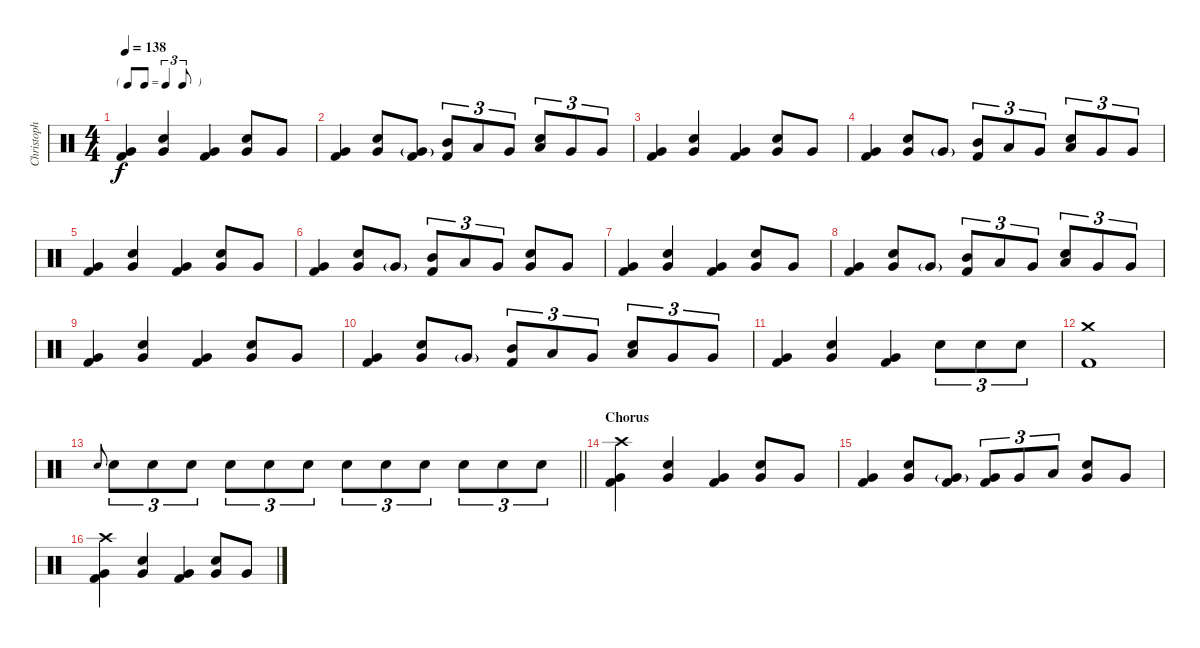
\track ("Christoph Schneider" "Christoph ") {instrument percussion}
\staff {score}
\articulation defaults
\ts (4 4)
\tf triplet8th
\tempo 138
\clef neutral
\ks c
("Very Low Tom (hit)" "Kick (hit) 2").4{dy f} ("Very Low Tom (hit)" "Electric Snare (hit)").4 ("Very Low Tom (hit)" "Kick (hit) 2").4 ("Very Low Tom (hit)" "Electric Snare (hit)").8 "Very Low Tom (hit)".8 |
("Very Low Tom (hit)" "Kick (hit) 2").4 ("Very Low Tom (hit)" "Electric Snare (hit)").8 ("Very Low Tom (hit)"{g} "Kick (hit) 2").8 ("Mid Tom (hit)" "Kick (hit) 2").8{tu (3 2)} "Low Tom (hit)".8{tu (3 2)} "Very Low Tom (hit)".8{tu (3 2)} ("Low Tom (hit)" "Electric Snare (hit)").8{tu (3 2)} "Very Low Tom (hit)".8{tu (3 2)} "Very Low Tom (hit)".8{tu (3 2)} |
("Very Low Tom (hit)" "Kick (hit) 2").4 ("Very Low Tom (hit)" "Electric Snare (hit)").4 ("Very Low Tom (hit)" "Kick (hit) 2").4 ("Very Low Tom (hit)" "Electric Snare (hit)").8 "Very Low Tom (hit)".8 |
("Very Low Tom (hit)" "Kick (hit) 2").4 ("Very Low Tom (hit)" "Electric Snare (hit)").8 "Very Low Tom (hit)"{g}.8 ("Mid Tom (hit)" "Kick (hit) 2").8{tu (3 2)} "Low Tom (hit)".8{tu (3 2)} "Very Low Tom (hit)".8{tu (3 2)} ("Low Tom (hit)" "Electric Snare (hit)").8{tu (3 2)} "Very Low Tom (hit)".8{tu (3 2)} "Very Low Tom (hit)".8{tu (3 2)} |
("Very Low Tom (hit)" "Kick (hit) 2").4 ("Very Low Tom (hit)" "Electric Snare (hit)").4 ("Very Low Tom (hit)" "Kick (hit) 2").4 ("Very Low Tom (hit)" "Electric Snare (hit)").8 "Very Low Tom (hit)".8 |
("Very Low Tom (hit)" "Kick (hit) 2").4 ("Very Low Tom (hit)" "Electric Snare (hit)").8 "Very Low Tom (hit)"{g}.8 ("Mid Tom (hit)" "Kick (hit) 2").8{tu (3 2)} "Low Tom (hit)".8{tu (3 2)} "Very Low Tom (hit)".8{tu (3 2)} ("Very Low Tom (hit)" "Electric Snare (hit)").8 "Very Low Tom (hit)".8 |
("Very Low Tom (hit)" "Kick (hit) 2").4 ("Very Low Tom (hit)" "Electric Snare (hit)").4 ("Very Low Tom (hit)" "Kick (hit) 2").4 ("Very Low Tom (hit)" "Electric Snare (hit)").8 "Very Low Tom (hit)".8 |
("Very Low Tom (hit)" "Kick (hit) 2").4 ("Very Low Tom (hit)" "Electric Snare (hit)").8 "Very Low Tom (hit)"{g}.8 ("Mid Tom (hit)" "Kick (hit) 2").8{tu (3 2)} "Low Tom (hit)".8{tu (3 2)} "Very Low Tom (hit)".8{tu (3 2)} ("Low Tom (hit)" "Electric Snare (hit)").8{tu (3 2)} "Very Low Tom (hit)".8{tu (3 2)} "Very Low Tom (hit)".8{tu (3 2)} |
("Very Low Tom (hit)" "Kick (hit) 2").4 ("Very Low Tom (hit)" "Electric Snare (hit)").4 ("Very Low Tom (hit)" "Kick (hit) 2").4 ("Very Low Tom (hit)" "Electric Snare (hit)").8 "Very Low Tom (hit)".8 |
("Very Low Tom (hit)" "Kick (hit) 2").4 ("Very Low Tom (hit)" "Electric Snare (hit)").8 "Very Low Tom (hit)"{g}.8 ("Mid Tom (hit)" "Kick (hit) 2").8{tu (3 2)} "Low Tom (hit)".8{tu (3 2)} "Very Low Tom (hit)".8{tu (3 2)} ("Low Tom (hit)" "Electric Snare (hit)").8{tu (3 2)} "Very Low Tom (hit)".8{tu (3 2)} "Very Low Tom (hit)".8{tu (3 2)} |
("Very Low Tom (hit)" "Kick (hit) 2").4 ("Very Low Tom (hit)" "Electric Snare (hit)").4 ("Very Low Tom (hit)" "Kick (hit) 2").4 "Electric Snare (hit)".8{tu (3 2)} "Electric Snare (hit)".8{tu (3 2)} "Electric Snare (hit)".8{tu (3 2)} |
("Crash medium (hit)" "Kick (hit) 2").1 |
\barLineRight lightlight "Electric Snare (hit)".8{gr onbeat} "Electric Snare (hit)".8{tu (3 2)} "Electric Snare (hit)".8{tu (3 2)} "Electric Snare (hit)".8{tu (3 2)} "Electric Snare (hit)".8{tu (3 2)} "Electric Snare (hit)".8{tu (3 2)} "Electric Snare (hit)".8{tu (3 2)} "Electric Snare (hit)".8{tu (3 2)} "Electric Snare (hit)".8{tu (3 2)} "Electric Snare (hit)".8{tu (3 2)} "Electric Snare (hit)".8{tu (3 2)} "Electric Snare (hit)".8{tu (3 2)} "Electric Snare (hit)".8{tu (3 2)}
|
\section ("" "Chorus")
("Crash high (hit)" "Very Low Tom (hit)" "Kick (hit) 2").4 ("Very Low Tom (hit)" "Electric Snare (hit)").4 ("Very Low Tom (hit)" "Kick (hit) 2").4 ("Very Low Tom (hit)" "Electric Snare (hit)").8 "Very Low Tom (hit)".8 |
("Very Low Tom (hit)" "Kick (hit) 2").4 ("Very Low Tom (hit)" "Electric Snare (hit)").8 ("Very Low Tom (hit)"{g} "Kick (hit) 2").8 ("Very Low Tom (hit)" "Kick (hit) 2").8{tu (3 2)} "Very Low Tom (hit)".8{tu (3 2)} "Low Tom (hit)".8{tu (3 2)} ("Very Low Tom (hit)" "Electric Snare (hit)").8 "Very Low Tom (hit)".8 |
("Crash high (hit)" "Very Low Tom (hit)" "Kick (hit) 2").4 ("Very Low Tom (hit)" "Electric Snare (hit)").4 ("Very Low Tom (hit)" "Kick (hit) 2").4 ("Very Low Tom (hit)" "Electric Snare (hit)").8 "Very Low Tom (hit)".8
